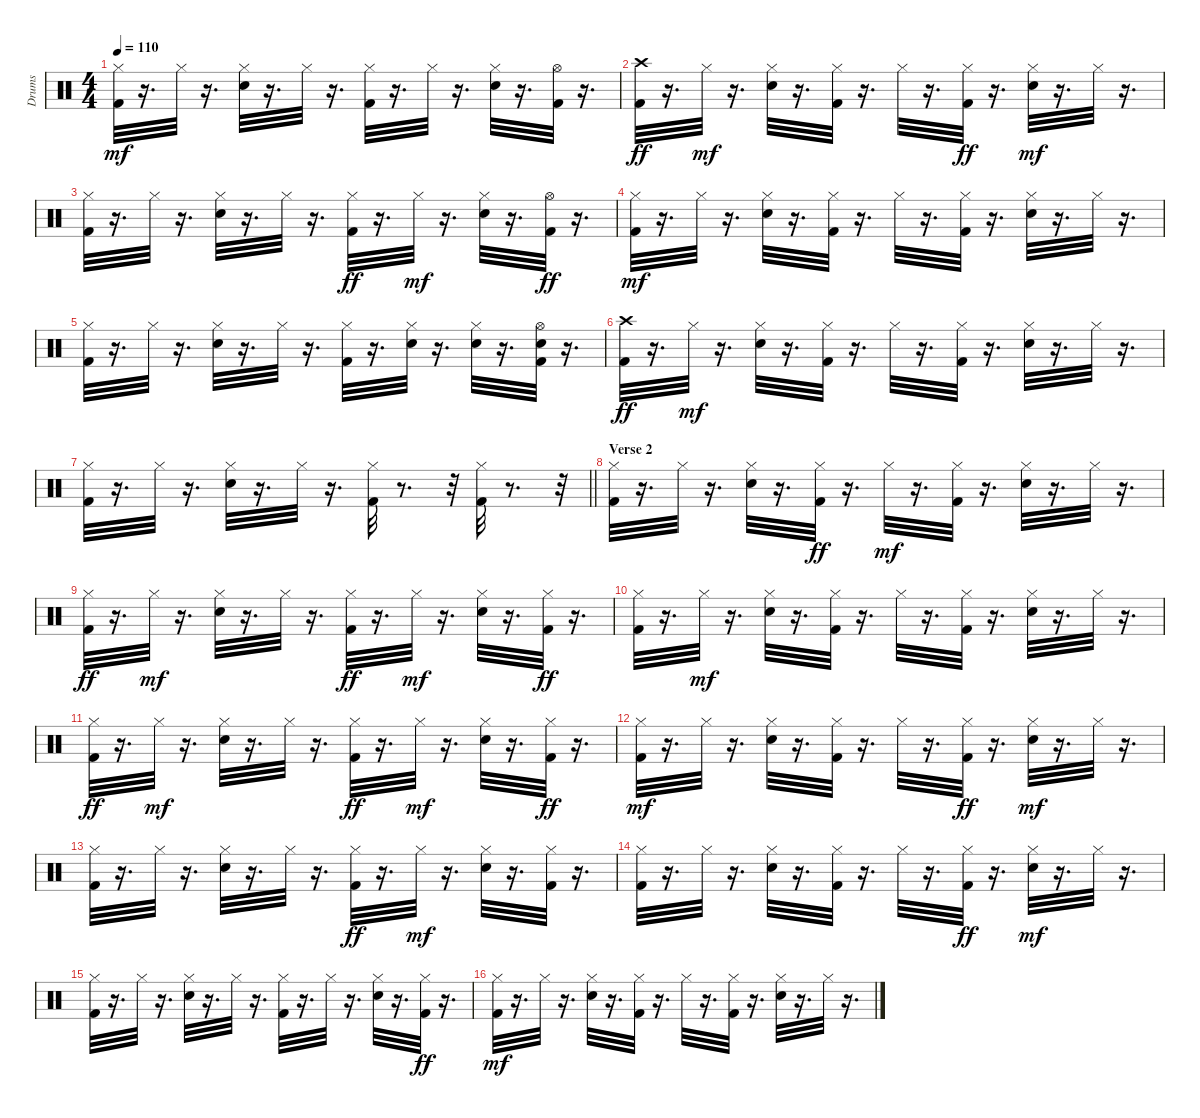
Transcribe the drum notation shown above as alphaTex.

\track ("Drums" "Drums") {instrument percussion}
\staff {score}
\articulation defaults
\ts (4 4)
\tempo 110
\clef neutral
\ks c
("Kick (hit) 2" "Hi-Hat (closed)").32{dy mf} r.16{d} "Hi-Hat (closed)".32 r.16{d} ("Hi-Hat (closed)" "Snare (hit) 2").32 r.16{d} "Hi-Hat (closed)".32 r.16{d} ("Kick (hit) 2" "Hi-Hat (closed)").32 r.16{d} "Hi-Hat (closed)".32 r.16{d} ("Hi-Hat (closed)" "Snare (hit) 2").32 r.16{d} ("Kick (hit) 2" "Hi-Hat (open)").32 r.16{d} |
("Crash high (hit)" "Kick (hit) 2").32{dy ff} r.16{d} "Hi-Hat (closed)".32{dy mf} r.16{d} ("Hi-Hat (closed)" "Snare (hit) 2").32 r.16{d} ("Kick (hit) 2" "Hi-Hat (closed)").32 r.16{d} "Hi-Hat (closed)".32 r.16{d} ("Hi-Hat (closed)" "Kick (hit) 2").32{dy ff} r.16{d} ("Snare (hit) 2" "Hi-Hat (closed)").32{dy mf} r.16{d} "Hi-Hat (closed)".32 r.16{d} |
("Kick (hit) 2" "Hi-Hat (closed)").32 r.16{d} "Hi-Hat (closed)".32 r.16{d} ("Snare (hit) 2" "Hi-Hat (closed)").32 r.16{d} "Hi-Hat (closed)".32 r.16{d} ("Hi-Hat (closed)" "Kick (hit) 2").32{dy ff} r.16{d} "Hi-Hat (closed)".32{dy mf} r.16{d} ("Snare (hit) 2" "Hi-Hat (closed)").32 r.16{d} ("Hi-Hat (open)" "Kick (hit) 2").32{dy ff} r.16{d} |
("Kick (hit) 2" "Hi-Hat (closed)").32{dy mf} r.16{d} "Hi-Hat (closed)".32 r.16{d} ("Hi-Hat (closed)" "Snare (hit) 2").32 r.16{d} ("Kick (hit) 2" "Hi-Hat (closed)").32 r.16{d} "Hi-Hat (closed)".32 r.16{d} ("Kick (hit) 2" "Hi-Hat (closed)").32 r.16{d} ("Hi-Hat (closed)" "Snare (hit) 2").32 r.16{d} "Hi-Hat (closed)".32 r.16{d} |
("Kick (hit) 2" "Hi-Hat (closed)").32 r.16{d} "Hi-Hat (closed)".32 r.16{d} ("Hi-Hat (closed)" "Snare (hit) 2").32 r.16{d} "Hi-Hat (closed)".32 r.16{d} ("Kick (hit) 2" "Hi-Hat (closed)").32 r.16{d} ("Snare (hit) 2" "Hi-Hat (closed)").32 r.16{d} ("Hi-Hat (closed)" "Snare (hit) 2").32 r.16{d} ("Snare (hit) 2" "Kick (hit) 2" "Hi-Hat (open)").32 r.16{d} |
("Crash high (hit)" "Kick (hit) 2").32{dy ff} r.16{d} "Hi-Hat (closed)".32{dy mf} r.16{d} ("Hi-Hat (closed)" "Snare (hit) 2").32 r.16{d} ("Kick (hit) 2" "Hi-Hat (closed)").32 r.16{d} "Hi-Hat (closed)".32 r.16{d} ("Kick (hit) 2" "Hi-Hat (closed)").32 r.16{d} ("Hi-Hat (closed)" "Snare (hit) 2").32 r.16{d} "Hi-Hat (closed)".32 r.16{d} |
\barLineRight lightlight
("Kick (hit) 2" "Hi-Hat (closed)").32 r.16{d} "Hi-Hat (closed)".32 r.16{d} ("Snare (hit) 2" "Hi-Hat (closed)").32 r.16{d} "Hi-Hat (closed)".32 r.16{d} ("Kick (hit) 2" "Hi-Hat (closed)").32 r.8{d} r.32 ("Kick (hit) 2" "Hi-Hat (closed)").32 r.8{d} r.32 |
\section ("" "Verse 2")
("Kick (hit) 2" "Hi-Hat (closed)").32 r.16{d} "Hi-Hat (closed)".32 r.16{d} ("Hi-Hat (closed)" "Snare (hit) 2").32 r.16{d} ("Hi-Hat (closed)" "Kick (hit) 2").32{dy ff} r.16{d} "Hi-Hat (closed)".32{dy mf} r.16{d} ("Kick (hit) 2" "Hi-Hat (closed)").32 r.16{d} ("Snare (hit) 2" "Hi-Hat (closed)").32 r.16{d} "Hi-Hat (closed)".32 r.16{d} |
("Hi-Hat (closed)" "Kick (hit) 2").32{dy ff} r.16{d} "Hi-Hat (closed)".32{dy mf} r.16{d} ("Snare (hit) 2" "Hi-Hat (closed)").32 r.16{d} "Hi-Hat (closed)".32 r.16{d} ("Hi-Hat (closed)" "Kick (hit) 2").32{dy ff} r.16{d} "Hi-Hat (closed)".32{dy mf} r.16{d} ("Snare (hit) 2" "Hi-Hat (closed)").32 r.16{d} ("Hi-Hat (closed)" "Kick (hit) 2").32{dy ff} r.16{d} |
("Hi-Hat (closed)" "Kick (hit) 2").32 r.16{d} "Hi-Hat (closed)".32{dy mf} r.16{d} ("Snare (hit) 2" "Hi-Hat (closed)").32 r.16{d} ("Kick (hit) 2" "Hi-Hat (closed)").32 r.16{d} "Hi-Hat (closed)".32 r.16{d} ("Kick (hit) 2" "Hi-Hat (closed)").32 r.16{d} ("Hi-Hat (closed)" "Snare (hit) 2").32 r.16{d} "Hi-Hat (closed)".32 r.16{d} |
("Hi-Hat (closed)" "Kick (hit) 2").32{dy ff} r.16{d} "Hi-Hat (closed)".32{dy mf} r.16{d} ("Snare (hit) 2" "Hi-Hat (closed)").32 r.16{d} "Hi-Hat (closed)".32 r.16{d} ("Hi-Hat (closed)" "Kick (hit) 2").32{dy ff} r.16{d} "Hi-Hat (closed)".32{dy mf} r.16{d} ("Snare (hit) 2" "Hi-Hat (closed)").32 r.16{d} ("Hi-Hat (closed)" "Kick (hit) 2").32{dy ff} r.16{d} |
("Kick (hit) 2" "Hi-Hat (closed)").32{dy mf} r.16{d} "Hi-Hat (closed)".32 r.16{d} ("Snare (hit) 2" "Hi-Hat (closed)").32 r.16{d} ("Kick (hit) 2" "Hi-Hat (closed)").32 r.16{d} "Hi-Hat (closed)".32 r.16{d} ("Hi-Hat (closed)" "Kick (hit) 2").32{dy ff} r.16{d} ("Snare (hit) 2" "Hi-Hat (closed)").32{dy mf} r.16{d} "Hi-Hat (closed)".32 r.16{d} |
("Kick (hit) 2" "Hi-Hat (closed)").32 r.16{d} "Hi-Hat (closed)".32 r.16{d} ("Snare (hit) 2" "Hi-Hat (closed)").32 r.16{d} "Hi-Hat (closed)".32 r.16{d} ("Hi-Hat (closed)" "Kick (hit) 2").32{dy ff} r.16{d} "Hi-Hat (closed)".32{dy mf} r.16{d} ("Snare (hit) 2" "Hi-Hat (closed)").32 r.16{d} ("Kick (hit) 2" "Hi-Hat (closed)").32 r.16{d} |
("Kick (hit) 2" "Hi-Hat (closed)").32 r.16{d} "Hi-Hat (closed)".32 r.16{d} ("Snare (hit) 2" "Hi-Hat (closed)").32 r.16{d} ("Kick (hit) 2" "Hi-Hat (closed)").32 r.16{d} "Hi-Hat (closed)".32 r.16{d} ("Hi-Hat (closed)" "Kick (hit) 2").32{dy ff} r.16{d} ("Snare (hit) 2" "Hi-Hat (closed)").32{dy mf} r.16{d} "Hi-Hat (closed)".32 r.16{d} |
("Kick (hit) 2" "Hi-Hat (closed)").32 r.16{d} "Hi-Hat (closed)".32 r.16{d} ("Snare (hit) 2" "Hi-Hat (closed)").32 r.16{d} "Hi-Hat (closed)".32 r.16{d} ("Kick (hit) 2" "Hi-Hat (closed)").32 r.16{d} "Hi-Hat (closed)".32 r.16{d} ("Hi-Hat (closed)" "Snare (hit) 2").32 r.16{d} ("Hi-Hat (closed)" "Kick (hit) 2").32{dy ff} r.16{d} |
("Kick (hit) 2" "Hi-Hat (closed)").32{dy mf} r.16{d} "Hi-Hat (closed)".32 r.16{d} ("Snare (hit) 2" "Hi-Hat (closed)").32 r.16{d} ("Kick (hit) 2" "Hi-Hat (closed)").32 r.16{d} "Hi-Hat (closed)".32 r.16{d} ("Kick (hit) 2" "Hi-Hat (closed)").32 r.16{d} ("Hi-Hat (closed)" "Snare (hit) 2").32 r.16{d} "Hi-Hat (closed)".32 r.16{d}
